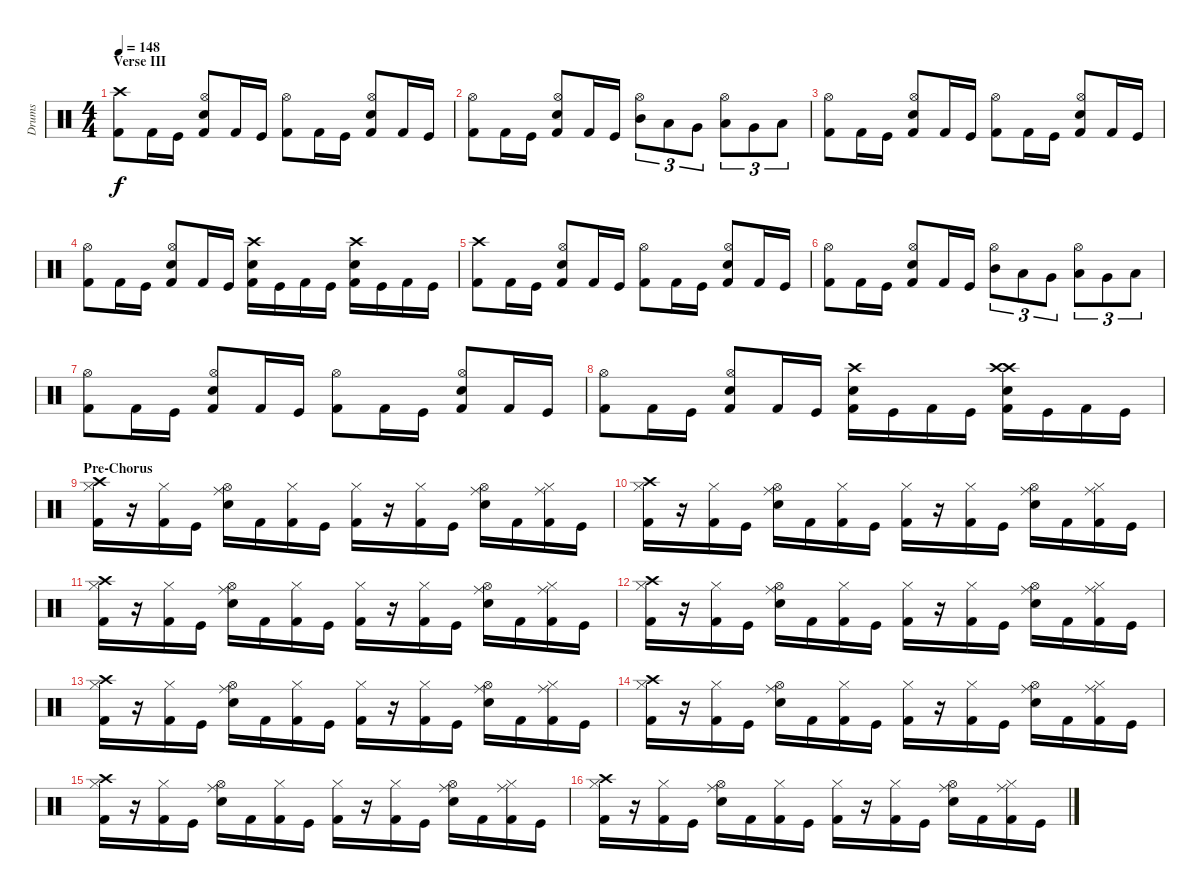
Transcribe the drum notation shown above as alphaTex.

\track ("Drums" "Drums") {instrument percussion}
\staff {score}
\articulation defaults
\ts (4 4)
\section ("" "Verse III")
\tempo 148
\clef neutral
\ks c
("Crash high (hit)" "Kick (hit) 2").8{dy f} "Kick (hit) 2".16 "Kick (hit)".16 ("Hi-Hat (open)" "Snare (hit) 2" "Kick (hit) 2").8 "Kick (hit) 2".16 "Kick (hit)".16 ("Hi-Hat (open)" "Kick (hit) 2").8 "Kick (hit) 2".16 "Kick (hit)".16 ("Hi-Hat (open)" "Snare (hit) 2" "Kick (hit) 2").8 "Kick (hit) 2".16 "Kick (hit)".16 |
("Hi-Hat (open)" "Kick (hit) 2").8 "Kick (hit) 2".16 "Kick (hit)".16 ("Hi-Hat (open)" "Snare (hit) 2" "Kick (hit) 2").8 "Kick (hit) 2".16 "Kick (hit)".16 ("Hi-Hat (open)" "Mid Tom (hit)").8{tu (3 2)} "Low Tom (hit)".8{tu (3 2)} "Very Low Tom (hit)".8{tu (3 2)} ("Hi-Hat (open)" "Low Tom (hit)").8{tu (3 2)} "Very Low Tom (hit)".8{tu (3 2)} "Low Floor Tom (hit)".8{tu (3 2)} |
("Hi-Hat (open)" "Kick (hit) 2").8 "Kick (hit) 2".16 "Kick (hit)".16 ("Hi-Hat (open)" "Snare (hit) 2" "Kick (hit) 2").8 "Kick (hit) 2".16 "Kick (hit)".16 ("Hi-Hat (open)" "Kick (hit) 2").8 "Kick (hit) 2".16 "Kick (hit)".16 ("Hi-Hat (open)" "Snare (hit) 2" "Kick (hit) 2").8 "Kick (hit) 2".16 "Kick (hit)".16 |
("Hi-Hat (open)" "Kick (hit) 2").8 "Kick (hit) 2".16 "Kick (hit)".16 ("Hi-Hat (open)" "Snare (hit) 2" "Kick (hit) 2").8 "Kick (hit) 2".16 "Kick (hit)".16 ("Crash high (hit)" "Snare (hit) 2" "Kick (hit) 2").16 "Kick (hit)".16 "Kick (hit) 2".16 "Kick (hit)".16 ("Crash high (hit)" "Snare (hit) 2" "Kick (hit) 2").16 "Kick (hit)".16 "Kick (hit) 2".16 "Kick (hit)".16 |
("Crash high (hit)" "Kick (hit) 2").8 "Kick (hit) 2".16 "Kick (hit)".16 ("Hi-Hat (open)" "Snare (hit) 2" "Kick (hit) 2").8 "Kick (hit) 2".16 "Kick (hit)".16 ("Hi-Hat (open)" "Kick (hit) 2").8 "Kick (hit) 2".16 "Kick (hit)".16 ("Hi-Hat (open)" "Snare (hit) 2" "Kick (hit) 2").8 "Kick (hit) 2".16 "Kick (hit)".16 |
("Hi-Hat (open)" "Kick (hit) 2").8 "Kick (hit) 2".16 "Kick (hit)".16 ("Hi-Hat (open)" "Snare (hit) 2" "Kick (hit) 2").8 "Kick (hit) 2".16 "Kick (hit)".16 ("Hi-Hat (open)" "Mid Tom (hit)").8{tu (3 2)} "Low Tom (hit)".8{tu (3 2)} "Very Low Tom (hit)".8{tu (3 2)} ("Hi-Hat (open)" "Low Tom (hit)").8{tu (3 2)} "Very Low Tom (hit)".8{tu (3 2)} "Low Floor Tom (hit)".8{tu (3 2)} |
("Hi-Hat (open)" "Kick (hit) 2").8 "Kick (hit) 2".16 "Kick (hit)".16 ("Hi-Hat (open)" "Snare (hit) 2" "Kick (hit) 2").8 "Kick (hit) 2".16 "Kick (hit)".16 ("Hi-Hat (open)" "Kick (hit) 2").8 "Kick (hit) 2".16 "Kick (hit)".16 ("Hi-Hat (open)" "Snare (hit) 2" "Kick (hit) 2").8 "Kick (hit) 2".16 "Kick (hit)".16 |
("Hi-Hat (open)" "Kick (hit) 2").8 "Kick (hit) 2".16 "Kick (hit)".16 ("Hi-Hat (open)" "Snare (hit) 2" "Kick (hit) 2").8 "Kick (hit) 2".16 "Kick (hit)".16 ("Crash high (hit)" "Snare (hit) 2" "Kick (hit) 2").16 "Kick (hit)".16 "Kick (hit) 2".16 "Kick (hit)".16 ("Crash high (hit)" "Crash high (hit)" "Snare (hit) 2" "Kick (hit) 2").16 "Kick (hit)".16 "Kick (hit) 2".16 "Kick (hit)".16 |
\section ("" "Pre-Chorus")
("Hi-Hat (closed)" "Crash high (hit)" "Kick (hit) 2").16 r.16 ("Hi-Hat (closed)" "Kick (hit) 2").16 "Kick (hit)".16 ("Hi-Hat (open)" "Ride (middle)" "Snare (hit) 2").16 "Kick (hit) 2".16 ("Hi-Hat (closed)" "Kick (hit) 2").16 "Kick (hit)".16 ("Hi-Hat (closed)" "Kick (hit) 2").16 r.16 ("Hi-Hat (closed)" "Kick (hit) 2").16 "Kick (hit)".16 ("Hi-Hat (open)" "Ride (middle)" "Snare (hit) 2").16 "Kick (hit) 2".16 ("Hi-Hat (closed)" "Ride (middle)" "Kick (hit) 2").16 "Kick (hit)".16 |
("Hi-Hat (closed)" "Crash high (hit)" "Kick (hit) 2").16 r.16 ("Hi-Hat (closed)" "Kick (hit) 2").16 "Kick (hit)".16 ("Hi-Hat (open)" "Ride (middle)" "Snare (hit) 2").16 "Kick (hit) 2".16 ("Hi-Hat (closed)" "Kick (hit) 2").16 "Kick (hit)".16 ("Hi-Hat (closed)" "Kick (hit) 2").16 r.16 ("Hi-Hat (closed)" "Kick (hit) 2").16 "Kick (hit)".16 ("Hi-Hat (open)" "Ride (middle)" "Snare (hit) 2").16 "Kick (hit) 2".16 ("Hi-Hat (closed)" "Ride (middle)" "Kick (hit) 2").16 "Kick (hit)".16 |
("Hi-Hat (closed)" "Crash high (hit)" "Kick (hit) 2").16 r.16 ("Hi-Hat (closed)" "Kick (hit) 2").16 "Kick (hit)".16 ("Hi-Hat (open)" "Ride (middle)" "Snare (hit) 2").16 "Kick (hit) 2".16 ("Hi-Hat (closed)" "Kick (hit) 2").16 "Kick (hit)".16 ("Hi-Hat (closed)" "Kick (hit) 2").16 r.16 ("Hi-Hat (closed)" "Kick (hit) 2").16 "Kick (hit)".16 ("Hi-Hat (open)" "Ride (middle)" "Snare (hit) 2").16 "Kick (hit) 2".16 ("Hi-Hat (closed)" "Ride (middle)" "Kick (hit) 2").16 "Kick (hit)".16 |
("Hi-Hat (closed)" "Crash high (hit)" "Kick (hit) 2").16 r.16 ("Hi-Hat (closed)" "Kick (hit) 2").16 "Kick (hit)".16 ("Hi-Hat (open)" "Ride (middle)" "Snare (hit) 2").16 "Kick (hit) 2".16 ("Hi-Hat (closed)" "Kick (hit) 2").16 "Kick (hit)".16 ("Hi-Hat (closed)" "Kick (hit) 2").16 r.16 ("Hi-Hat (closed)" "Kick (hit) 2").16 "Kick (hit)".16 ("Hi-Hat (open)" "Ride (middle)" "Snare (hit) 2").16 "Kick (hit) 2".16 ("Hi-Hat (closed)" "Ride (middle)" "Kick (hit) 2").16 "Kick (hit)".16 |
("Hi-Hat (closed)" "Crash high (hit)" "Kick (hit) 2").16 r.16 ("Hi-Hat (closed)" "Kick (hit) 2").16 "Kick (hit)".16 ("Hi-Hat (open)" "Ride (middle)" "Snare (hit) 2").16 "Kick (hit) 2".16 ("Hi-Hat (closed)" "Kick (hit) 2").16 "Kick (hit)".16 ("Hi-Hat (closed)" "Kick (hit) 2").16 r.16 ("Hi-Hat (closed)" "Kick (hit) 2").16 "Kick (hit)".16 ("Hi-Hat (open)" "Ride (middle)" "Snare (hit) 2").16 "Kick (hit) 2".16 ("Hi-Hat (closed)" "Ride (middle)" "Kick (hit) 2").16 "Kick (hit)".16 |
("Hi-Hat (closed)" "Crash high (hit)" "Kick (hit) 2").16 r.16 ("Hi-Hat (closed)" "Kick (hit) 2").16 "Kick (hit)".16 ("Hi-Hat (open)" "Ride (middle)" "Snare (hit) 2").16 "Kick (hit) 2".16 ("Hi-Hat (closed)" "Kick (hit) 2").16 "Kick (hit)".16 ("Hi-Hat (closed)" "Kick (hit) 2").16 r.16 ("Hi-Hat (closed)" "Kick (hit) 2").16 "Kick (hit)".16 ("Hi-Hat (open)" "Ride (middle)" "Snare (hit) 2").16 "Kick (hit) 2".16 ("Hi-Hat (closed)" "Ride (middle)" "Kick (hit) 2").16 "Kick (hit)".16 |
("Hi-Hat (closed)" "Crash high (hit)" "Kick (hit) 2").16 r.16 ("Hi-Hat (closed)" "Kick (hit) 2").16 "Kick (hit)".16 ("Hi-Hat (open)" "Ride (middle)" "Snare (hit) 2").16 "Kick (hit) 2".16 ("Hi-Hat (closed)" "Kick (hit) 2").16 "Kick (hit)".16 ("Hi-Hat (closed)" "Kick (hit) 2").16 r.16 ("Hi-Hat (closed)" "Kick (hit) 2").16 "Kick (hit)".16 ("Hi-Hat (open)" "Ride (middle)" "Snare (hit) 2").16 "Kick (hit) 2".16 ("Hi-Hat (closed)" "Ride (middle)" "Kick (hit) 2").16 "Kick (hit)".16 |
("Hi-Hat (closed)" "Crash high (hit)" "Kick (hit) 2").16 r.16 ("Hi-Hat (closed)" "Kick (hit) 2").16 "Kick (hit)".16 ("Hi-Hat (open)" "Ride (middle)" "Snare (hit) 2").16 "Kick (hit) 2".16 ("Hi-Hat (closed)" "Kick (hit) 2").16 "Kick (hit)".16 ("Hi-Hat (closed)" "Kick (hit) 2").16 r.16 ("Hi-Hat (closed)" "Kick (hit) 2").16 "Kick (hit)".16 ("Hi-Hat (open)" "Ride (middle)" "Snare (hit) 2").16 "Kick (hit) 2".16 ("Hi-Hat (closed)" "Ride (middle)" "Kick (hit) 2").16 "Kick (hit)".16
